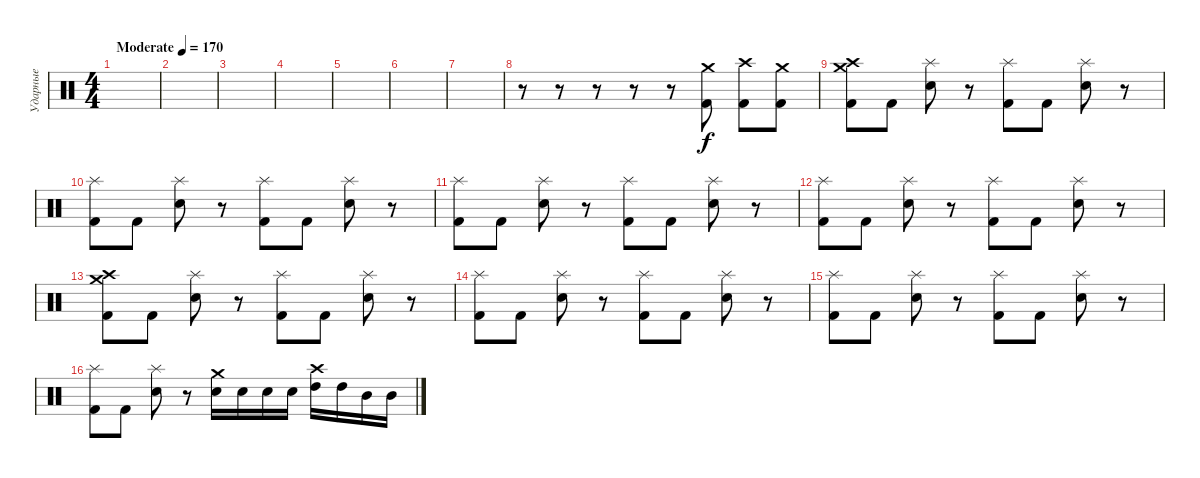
\track ("Ударные" "Ударные") {instrument percussion}
\staff {score}
\articulation defaults
\ts (4 4)
\tempo (170 "Moderate")
\clef neutral
\ks c
|
|
|
|
|
|
|
r.8 r.8 r.8 r.8 r.8 ("Crash medium (hit)" "Kick (hit) 2").8 ("Crash high (hit)" "Kick (hit) 2").8 ("Crash medium (hit)" "Kick (hit) 2").8 |
("Crash medium (hit)" "Crash high (hit)" "Kick (hit) 2").8 "Kick (hit) 2".8 ("Splash (hit)" "Electric Snare (hit)").8 r.8 ("Splash (hit)" "Kick (hit) 2").8 "Kick (hit) 2".8 ("Splash (hit)" "Electric Snare (hit)").8 r.8 |
("Splash (hit)" "Kick (hit) 2").8 "Kick (hit) 2".8 ("Splash (hit)" "Electric Snare (hit)").8 r.8 ("Splash (hit)" "Kick (hit) 2").8 "Kick (hit) 2".8 ("Splash (hit)" "Electric Snare (hit)").8 r.8 |
("Splash (hit)" "Kick (hit) 2").8 "Kick (hit) 2".8 ("Splash (hit)" "Electric Snare (hit)").8 r.8 ("Splash (hit)" "Kick (hit) 2").8 "Kick (hit) 2".8 ("Splash (hit)" "Electric Snare (hit)").8 r.8 |
("Splash (hit)" "Kick (hit) 2").8 "Kick (hit) 2".8 ("Splash (hit)" "Electric Snare (hit)").8 r.8 ("Splash (hit)" "Kick (hit) 2").8 "Kick (hit) 2".8 ("Splash (hit)" "Electric Snare (hit)").8 r.8 |
("Crash medium (hit)" "Crash high (hit)" "Kick (hit) 2").8 "Kick (hit) 2".8 ("Splash (hit)" "Electric Snare (hit)").8 r.8 ("Splash (hit)" "Kick (hit) 2").8 "Kick (hit) 2".8 ("Splash (hit)" "Electric Snare (hit)").8 r.8 |
("Splash (hit)" "Kick (hit) 2").8 "Kick (hit) 2".8 ("Splash (hit)" "Electric Snare (hit)").8 r.8 ("Splash (hit)" "Kick (hit) 2").8 "Kick (hit) 2".8 ("Splash (hit)" "Electric Snare (hit)").8 r.8 |
("Splash (hit)" "Kick (hit) 2").8 "Kick (hit) 2".8 ("Splash (hit)" "Electric Snare (hit)").8 r.8 ("Splash (hit)" "Kick (hit) 2").8 "Kick (hit) 2".8 ("Splash (hit)" "Electric Snare (hit)").8 r.8 |
("Splash (hit)" "Kick (hit) 2").8 "Kick (hit) 2".8 ("Splash (hit)" "Electric Snare (hit)").8 r.8 ("Crash medium (hit)" "Electric Snare (hit)").16 "Electric Snare (hit)".16 "Electric Snare (hit)".16 "Electric Snare (hit)".16 ("Crash high (hit)" "High Tom (hit)").16 "High Tom (hit)".16 "Mid Tom (hit)".16 "Mid Tom (hit)".16
